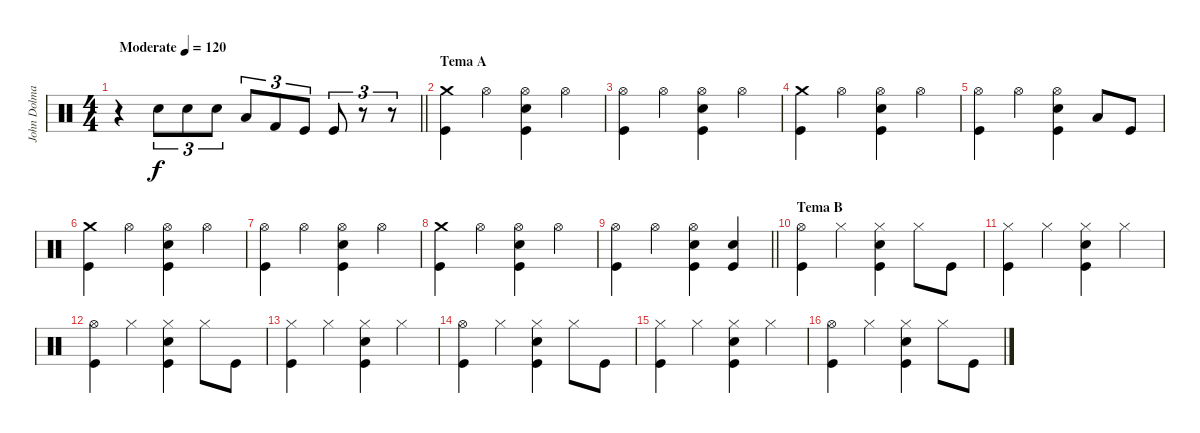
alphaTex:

\track ("John Dolmayan (Bateria)" "John Dolma") {instrument percussion}
\staff {score}
\articulation defaults
\ts (4 4)
\tempo (120 "Moderate")
\clef neutral
\barLineRight lightlight
\ks c
r.4{dy f} "Snare (hit) 2".8{tu (3 2)} "Electric Snare (hit)".8{tu (3 2)} "Snare (hit) 2".8{tu (3 2)} "Low Floor Tom (hit)".8{tu (3 2)} "Kick (hit) 2".8{tu (3 2)} "Kick (hit)".8{tu (3 2)} "Kick (hit)".8{tu (3 2)} r.8{tu (3 2)} r.8{tu (3 2)} |
\section ("" "Tema A")
("Crash medium (hit)" "Kick (hit)").4 "Hi-Hat (open)".4 ("Hi-Hat (open)" "Snare (hit) 2" "Kick (hit)").4 "Hi-Hat (open)".4 |
("Hi-Hat (open)" "Kick (hit)").4 "Hi-Hat (open)".4 ("Hi-Hat (open)" "Snare (hit) 2" "Kick (hit)").4 "Hi-Hat (open)".4 |
("Crash medium (hit)" "Kick (hit)").4 "Hi-Hat (open)".4 ("Hi-Hat (open)" "Snare (hit) 2" "Kick (hit)").4 "Hi-Hat (open)".4 |
("Hi-Hat (open)" "Kick (hit)").4 "Hi-Hat (open)".4 ("Hi-Hat (open)" "Snare (hit) 2" "Kick (hit)").4 "Low Floor Tom (hit)".8 "Kick (hit)".8 |
("Crash medium (hit)" "Kick (hit)").4 "Hi-Hat (open)".4 ("Hi-Hat (open)" "Snare (hit) 2" "Kick (hit)").4 "Hi-Hat (open)".4 |
("Hi-Hat (open)" "Kick (hit)").4 "Hi-Hat (open)".4 ("Hi-Hat (open)" "Snare (hit) 2" "Kick (hit)").4 "Hi-Hat (open)".4 |
("Crash medium (hit)" "Kick (hit)").4 "Hi-Hat (open)".4 ("Hi-Hat (open)" "Snare (hit) 2" "Kick (hit)").4 "Hi-Hat (open)".4 |
\barLineRight lightlight
("Hi-Hat (open)" "Kick (hit)").4 "Hi-Hat (open)".4 ("Hi-Hat (open)" "Snare (hit) 2" "Kick (hit)").4 ("Snare (hit) 2" "Kick (hit)").4 |
\section ("" "Tema B")
("Hi-Hat (open)" "Kick (hit)").4 "Hi-Hat (closed)".4 ("Hi-Hat (closed)" "Snare (hit) 2" "Kick (hit)").4 "Hi-Hat (closed)".8 "Kick (hit)".8 |
("Hi-Hat (closed)" "Kick (hit)").4 "Hi-Hat (closed)".4 ("Hi-Hat (closed)" "Snare (hit) 2" "Kick (hit)").4 "Hi-Hat (closed)".4 |
("Hi-Hat (open)" "Kick (hit)").4 "Hi-Hat (closed)".4 ("Hi-Hat (closed)" "Snare (hit) 2" "Kick (hit)").4 "Hi-Hat (closed)".8 "Kick (hit)".8 |
("Hi-Hat (closed)" "Kick (hit)").4 "Hi-Hat (closed)".4 ("Hi-Hat (closed)" "Snare (hit) 2" "Kick (hit)").4 "Hi-Hat (closed)".4 |
("Hi-Hat (open)" "Kick (hit)").4 "Hi-Hat (closed)".4 ("Hi-Hat (closed)" "Snare (hit) 2" "Kick (hit)").4 "Hi-Hat (closed)".8 "Kick (hit)".8 |
("Hi-Hat (closed)" "Kick (hit)").4 "Hi-Hat (closed)".4 ("Hi-Hat (closed)" "Snare (hit) 2" "Kick (hit)").4 "Hi-Hat (closed)".4 |
("Hi-Hat (open)" "Kick (hit)").4 "Hi-Hat (closed)".4 ("Hi-Hat (closed)" "Snare (hit) 2" "Kick (hit)").4 "Hi-Hat (closed)".8 "Kick (hit)".8
